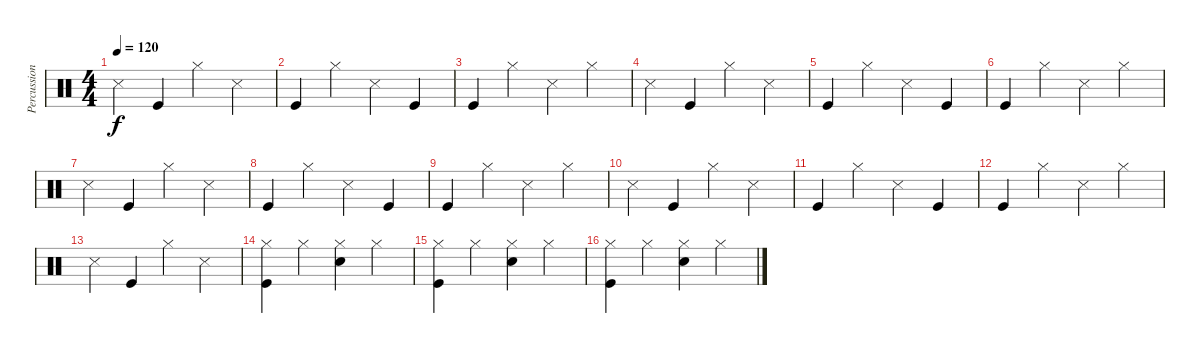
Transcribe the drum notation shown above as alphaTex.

\track ("Percussion" "Percussion") {instrument percussion}
\staff {score}
\articulation defaults
\ts (4 4)
\tempo 120
\clef neutral
\ks c "Snare (side stick) 3".4{dy f} "Kick (hit)".4 "Hi-Hat (closed)".4 "Snare (side stick) 3".4
|
"Kick (hit)".4 "Hi-Hat (closed)".4 "Snare (side stick) 3".4 "Kick (hit)".4 |
"Kick (hit)".4 "Hi-Hat (closed)".4 "Snare (side stick) 3".4 "Hi-Hat (closed)".4 |
"Snare (side stick) 3".4 "Kick (hit)".4 "Hi-Hat (closed)".4 "Snare (side stick) 3".4 |
"Kick (hit)".4 "Hi-Hat (closed)".4 "Snare (side stick) 3".4 "Kick (hit)".4 |
"Kick (hit)".4 "Hi-Hat (closed)".4 "Snare (side stick) 3".4 "Hi-Hat (closed)".4 |
"Snare (side stick) 3".4 "Kick (hit)".4 "Hi-Hat (closed)".4 "Snare (side stick) 3".4 |
"Kick (hit)".4 "Hi-Hat (closed)".4 "Snare (side stick) 3".4 "Kick (hit)".4 |
"Kick (hit)".4 "Hi-Hat (closed)".4 "Snare (side stick) 3".4 "Hi-Hat (closed)".4 |
"Snare (side stick) 3".4 "Kick (hit)".4 "Hi-Hat (closed)".4 "Snare (side stick) 3".4 |
"Kick (hit)".4 "Hi-Hat (closed)".4 "Snare (side stick) 3".4 "Kick (hit)".4 |
"Kick (hit)".4 "Hi-Hat (closed)".4 "Snare (side stick) 3".4 "Hi-Hat (closed)".4 |
"Snare (side stick) 3".4 "Kick (hit)".4 "Hi-Hat (closed)".4 "Snare (side stick) 3".4 |
("Kick (hit)" "Hi-Hat (closed)").4 "Hi-Hat (closed)".4 ("Snare (hit) 2" "Hi-Hat (closed)").4 "Hi-Hat (closed)".4 |
("Kick (hit)" "Hi-Hat (closed)").4 "Hi-Hat (closed)".4 ("Snare (hit) 2" "Hi-Hat (closed)").4 "Hi-Hat (closed)".4 |
("Kick (hit)" "Hi-Hat (closed)").4 "Hi-Hat (closed)".4 ("Snare (hit) 2" "Hi-Hat (closed)").4 "Hi-Hat (closed)".4
